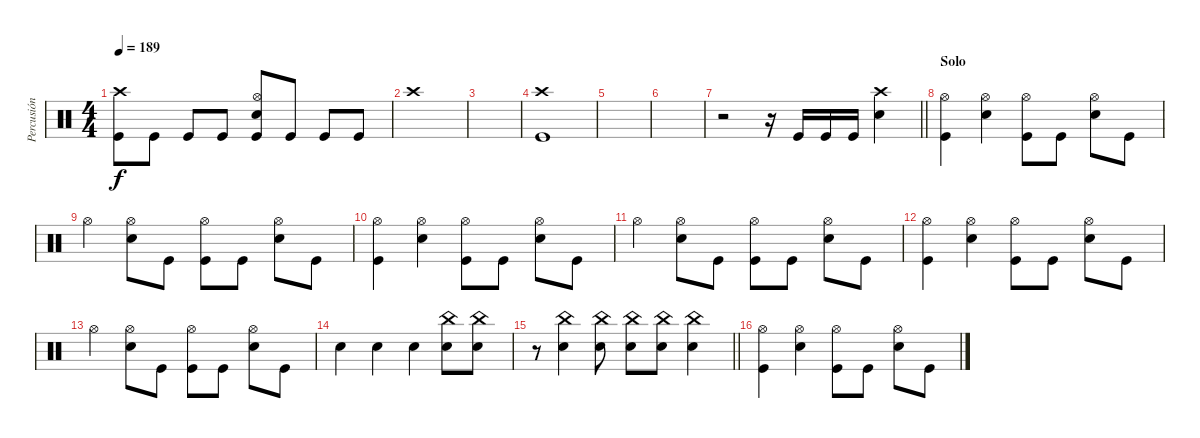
\track ("Percusión" "Percusión") {instrument percussion}
\staff {score}
\articulation defaults
\ts (4 4)
\tempo 189
\clef neutral
\ks c
("Crash high (hit)" "Kick (hit)").8{dy f} "Kick (hit)".8 "Kick (hit)".8 "Kick (hit)".8 ("Hi-Hat (open)" "Electric Snare (hit)" "Kick (hit)").8 "Kick (hit)".8 "Kick (hit)".8 "Kick (hit)".8 |
"Crash high (hit)".1 |
|
("Crash high (hit)" "Kick (hit)").1 |
|
|
\barLineRight lightlight
r.2 r.16 "Kick (hit)".16 "Kick (hit)".16 "Kick (hit)".16 ("Crash high (hit)" "Electric Snare (hit)").4 |
\section ("" "Solo")
("Hi-Hat (open)" "Kick (hit)").4 ("Hi-Hat (open)" "Electric Snare (hit)").4 ("Hi-Hat (open)" "Kick (hit)").8 "Kick (hit)".8 ("Hi-Hat (open)" "Electric Snare (hit)").8 "Kick (hit)".8 |
"Hi-Hat (open)".4 ("Hi-Hat (open)" "Electric Snare (hit)").8 "Kick (hit)".8 ("Hi-Hat (open)" "Kick (hit)").8 "Kick (hit)".8 ("Hi-Hat (open)" "Electric Snare (hit)").8 "Kick (hit)".8 |
("Hi-Hat (open)" "Kick (hit)").4 ("Hi-Hat (open)" "Electric Snare (hit)").4 ("Hi-Hat (open)" "Kick (hit)").8 "Kick (hit)".8 ("Hi-Hat (open)" "Electric Snare (hit)").8 "Kick (hit)".8 |
"Hi-Hat (open)".4 ("Hi-Hat (open)" "Electric Snare (hit)").8 "Kick (hit)".8 ("Hi-Hat (open)" "Kick (hit)").8 "Kick (hit)".8 ("Hi-Hat (open)" "Electric Snare (hit)").8 "Kick (hit)".8 |
("Hi-Hat (open)" "Kick (hit)").4 ("Hi-Hat (open)" "Electric Snare (hit)").4 ("Hi-Hat (open)" "Kick (hit)").8 "Kick (hit)".8 ("Hi-Hat (open)" "Electric Snare (hit)").8 "Kick (hit)".8 |
"Hi-Hat (open)".4 ("Hi-Hat (open)" "Electric Snare (hit)").8 "Kick (hit)".8 ("Hi-Hat (open)" "Kick (hit)").8 "Kick (hit)".8 ("Hi-Hat (open)" "Electric Snare (hit)").8 "Kick (hit)".8 |
"Electric Snare (hit)".4 "Electric Snare (hit)".4 "Electric Snare (hit)".4 ("China (hit)" "Electric Snare (hit)").8 ("China (hit)" "Electric Snare (hit)").8 |
\barLineRight lightlight
r.8 ("China (hit)" "Electric Snare (hit)").4 ("China (hit)" "Electric Snare (hit)").8 ("China (hit)" "Electric Snare (hit)").8 ("China (hit)" "Electric Snare (hit)").8 ("China (hit)" "Electric Snare (hit)").4 |
("Hi-Hat (open)" "Kick (hit)").4 ("Hi-Hat (open)" "Electric Snare (hit)").4 ("Hi-Hat (open)" "Kick (hit)").8 "Kick (hit)".8 ("Hi-Hat (open)" "Electric Snare (hit)").8 "Kick (hit)".8
